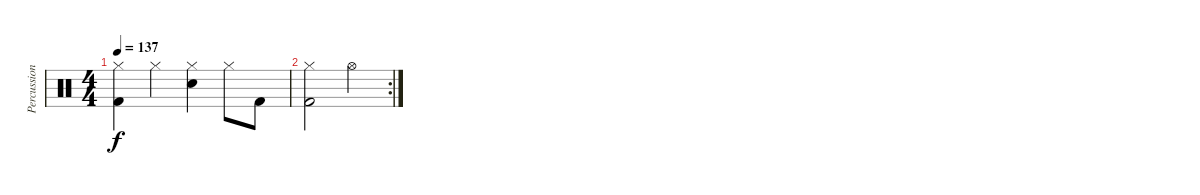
\track ("Percussion" "Percussion") {instrument percussion}
\staff {score}
\articulation defaults
\ts (4 4)
\tempo 137
\clef neutral
\ks c
("Hi-Hat (closed)" "Kick (hit) 2").4{dy f} "Hi-Hat (closed)".4 ("Hi-Hat (closed)" "Snare (hit) 2").4 "Hi-Hat (closed)".8 "Kick (hit) 2".8 |
\rc 2
("Hi-Hat (closed)" "Kick (hit) 2").2 "Hi-Hat (open)".4
